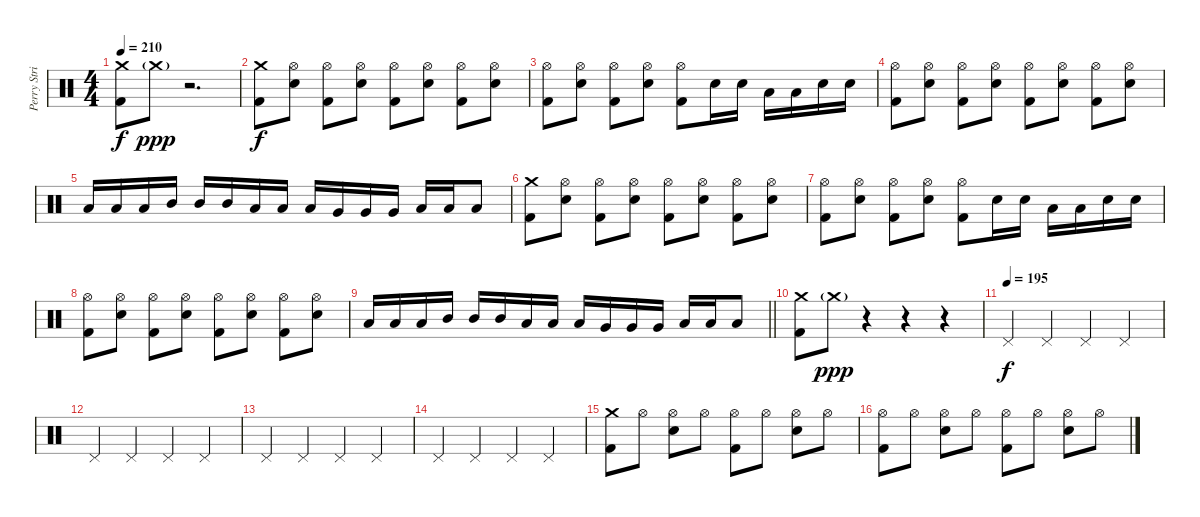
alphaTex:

\track ("Perry Strickland" "Perry Stri") {instrument percussion}
\staff {score}
\articulation defaults
\ts (4 4)
\tempo 210
\clef neutral
\ks c
("Crash medium (hit)" "Kick (hit) 2").8{dy f} "Crash medium (hit)"{g}.8{dy ppp} r.2{d} |
("Crash medium (hit)" "Kick (hit) 2").8{dy f} ("Hi-Hat (open)" "Electric Snare (hit)").8 ("Hi-Hat (open)" "Kick (hit) 2").8 ("Hi-Hat (open)" "Electric Snare (hit)").8 ("Hi-Hat (open)" "Kick (hit) 2").8 ("Hi-Hat (open)" "Electric Snare (hit)").8 ("Hi-Hat (open)" "Kick (hit) 2").8 ("Hi-Hat (open)" "Electric Snare (hit)").8 |
("Hi-Hat (open)" "Kick (hit) 2").8 ("Hi-Hat (open)" "Electric Snare (hit)").8 ("Hi-Hat (open)" "Kick (hit) 2").8 ("Hi-Hat (open)" "Electric Snare (hit)").8 ("Hi-Hat (open)" "Kick (hit) 2").8 "Electric Snare (hit)".16 "Electric Snare (hit)".16 "Low Tom (hit)".16 "Low Tom (hit)".16 "Electric Snare (hit)".16 "Electric Snare (hit)".16 |
("Hi-Hat (open)" "Kick (hit) 2").8 ("Hi-Hat (open)" "Electric Snare (hit)").8 ("Hi-Hat (open)" "Kick (hit) 2").8 ("Hi-Hat (open)" "Electric Snare (hit)").8 ("Hi-Hat (open)" "Kick (hit) 2").8 ("Hi-Hat (open)" "Electric Snare (hit)").8 ("Hi-Hat (open)" "Kick (hit) 2").8 ("Hi-Hat (open)" "Electric Snare (hit)").8 |
"Low Tom (hit)".16 "Low Tom (hit)".16 "Low Tom (hit)".16 "Mid Tom (hit)".16 "Mid Tom (hit)".16 "Mid Tom (hit)".16 "Low Tom (hit)".16 "Low Tom (hit)".16 "Low Tom (hit)".16 "Very Low Tom (hit)".16 "Very Low Tom (hit)".16 "Very Low Tom (hit)".16 "Low Floor Tom (hit)".16 "Low Floor Tom (hit)".16 "Low Floor Tom (hit)".8 |
("Crash medium (hit)" "Kick (hit) 2").8 ("Hi-Hat (open)" "Electric Snare (hit)").8 ("Hi-Hat (open)" "Kick (hit) 2").8 ("Hi-Hat (open)" "Electric Snare (hit)").8 ("Hi-Hat (open)" "Kick (hit) 2").8 ("Hi-Hat (open)" "Electric Snare (hit)").8 ("Hi-Hat (open)" "Kick (hit) 2").8 ("Hi-Hat (open)" "Electric Snare (hit)").8 |
("Hi-Hat (open)" "Kick (hit) 2").8 ("Hi-Hat (open)" "Electric Snare (hit)").8 ("Hi-Hat (open)" "Kick (hit) 2").8 ("Hi-Hat (open)" "Electric Snare (hit)").8 ("Hi-Hat (open)" "Kick (hit) 2").8 "Electric Snare (hit)".16 "Electric Snare (hit)".16 "Low Tom (hit)".16 "Low Tom (hit)".16 "Electric Snare (hit)".16 "Electric Snare (hit)".16 |
("Hi-Hat (open)" "Kick (hit) 2").8 ("Hi-Hat (open)" "Electric Snare (hit)").8 ("Hi-Hat (open)" "Kick (hit) 2").8 ("Hi-Hat (open)" "Electric Snare (hit)").8 ("Hi-Hat (open)" "Kick (hit) 2").8 ("Hi-Hat (open)" "Electric Snare (hit)").8 ("Hi-Hat (open)" "Kick (hit) 2").8 ("Hi-Hat (open)" "Electric Snare (hit)").8 |
\barLineRight lightlight "Low Tom (hit)".16 "Low Tom (hit)".16 "Low Tom (hit)".16 "Mid Tom (hit)".16 "Mid Tom (hit)".16 "Mid Tom (hit)".16 "Low Tom (hit)".16 "Low Tom (hit)".16 "Low Tom (hit)".16 "Very Low Tom (hit)".16 "Very Low Tom (hit)".16 "Very Low Tom (hit)".16 "Low Floor Tom (hit)".16 "Low Floor Tom (hit)".16 "Low Floor Tom (hit)".8
|
("Crash medium (hit)" "Kick (hit) 2").8 "Crash medium (hit)"{g}.8{dy ppp} r.4 r.4 r.4 |
\tempo (195)
"Pedal Hi-Hat (hit)".4{dy f} "Pedal Hi-Hat (hit)".4 "Pedal Hi-Hat (hit)".4 "Pedal Hi-Hat (hit)".4 |
"Pedal Hi-Hat (hit)".4 "Pedal Hi-Hat (hit)".4 "Pedal Hi-Hat (hit)".4 "Pedal Hi-Hat (hit)".4 |
"Pedal Hi-Hat (hit)".4 "Pedal Hi-Hat (hit)".4 "Pedal Hi-Hat (hit)".4 "Pedal Hi-Hat (hit)".4 |
"Pedal Hi-Hat (hit)".4 "Pedal Hi-Hat (hit)".4 "Pedal Hi-Hat (hit)".4 "Pedal Hi-Hat (hit)".4 |
("Crash medium (hit)" "Kick (hit) 2").8 "Hi-Hat (open)".8 ("Hi-Hat (open)" "Electric Snare (hit)").8 "Hi-Hat (open)".8 ("Hi-Hat (open)" "Kick (hit) 2").8 "Hi-Hat (open)".8 ("Hi-Hat (open)" "Electric Snare (hit)").8 "Hi-Hat (open)".8 |
("Hi-Hat (open)" "Kick (hit) 2").8 "Hi-Hat (open)".8 ("Hi-Hat (open)" "Electric Snare (hit)").8 "Hi-Hat (open)".8 ("Hi-Hat (open)" "Kick (hit) 2").8 "Hi-Hat (open)".8 ("Hi-Hat (open)" "Electric Snare (hit)").8 "Hi-Hat (open)".8
